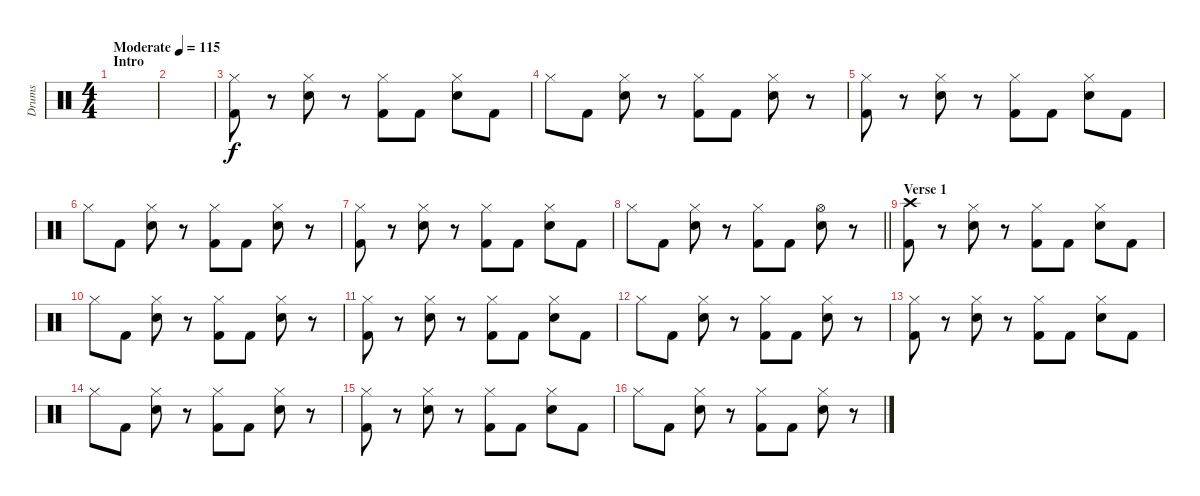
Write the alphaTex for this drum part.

\track ("Drums" "Drums") {instrument percussion}
\staff {score}
\articulation defaults
\ts (4 4)
\section ("" "Intro")
\tempo (115 "Moderate")
\clef neutral
\ks c
|
|
("Hi-Hat (closed)" "Kick (hit) 2").8 r.8 ("Hi-Hat (closed)" "Snare (hit) 2").8 r.8 ("Hi-Hat (closed)" "Kick (hit) 2").8 "Kick (hit) 2".8 ("Hi-Hat (closed)" "Snare (hit) 2").8 "Kick (hit) 2".8 |
"Hi-Hat (closed)".8 "Kick (hit) 2".8 ("Hi-Hat (closed)" "Snare (hit) 2").8 r.8 ("Hi-Hat (closed)" "Kick (hit) 2").8 "Kick (hit) 2".8 ("Hi-Hat (closed)" "Snare (hit) 2").8 r.8 |
("Hi-Hat (closed)" "Kick (hit) 2").8 r.8 ("Hi-Hat (closed)" "Snare (hit) 2").8 r.8 ("Hi-Hat (closed)" "Kick (hit) 2").8 "Kick (hit) 2".8 ("Hi-Hat (closed)" "Snare (hit) 2").8 "Kick (hit) 2".8 |
"Hi-Hat (closed)".8 "Kick (hit) 2".8 ("Hi-Hat (closed)" "Snare (hit) 2").8 r.8 ("Hi-Hat (closed)" "Kick (hit) 2").8 "Kick (hit) 2".8 ("Hi-Hat (closed)" "Snare (hit) 2").8 r.8 |
("Hi-Hat (closed)" "Kick (hit) 2").8 r.8 ("Hi-Hat (closed)" "Snare (hit) 2").8 r.8 ("Hi-Hat (closed)" "Kick (hit) 2").8 "Kick (hit) 2".8 ("Hi-Hat (closed)" "Snare (hit) 2").8 "Kick (hit) 2".8 |
\barLineRight lightlight "Hi-Hat (closed)".8 "Kick (hit) 2".8
("Hi-Hat (closed)" "Snare (hit) 2").8 r.8 ("Hi-Hat (closed)" "Kick (hit) 2").8 "Kick (hit) 2".8 ("Hi-Hat (open)" "Snare (hit) 2").8 r.8 |
\section ("" "Verse 1")
("Crash high (hit)" "Kick (hit) 2").8 r.8 ("Hi-Hat (closed)" "Snare (hit) 2").8 r.8 ("Hi-Hat (closed)" "Kick (hit) 2").8 "Kick (hit) 2".8 ("Hi-Hat (closed)" "Snare (hit) 2").8 "Kick (hit) 2".8 |
"Hi-Hat (closed)".8 "Kick (hit) 2".8 ("Hi-Hat (closed)" "Snare (hit) 2").8 r.8 ("Hi-Hat (closed)" "Kick (hit) 2").8 "Kick (hit) 2".8 ("Hi-Hat (closed)" "Snare (hit) 2").8 r.8 |
("Hi-Hat (closed)" "Kick (hit) 2").8 r.8 ("Hi-Hat (closed)" "Snare (hit) 2").8 r.8 ("Hi-Hat (closed)" "Kick (hit) 2").8 "Kick (hit) 2".8 ("Hi-Hat (closed)" "Snare (hit) 2").8 "Kick (hit) 2".8 |
"Hi-Hat (closed)".8 "Kick (hit) 2".8 ("Hi-Hat (closed)" "Snare (hit) 2").8 r.8 ("Hi-Hat (closed)" "Kick (hit) 2").8 "Kick (hit) 2".8 ("Hi-Hat (closed)" "Snare (hit) 2").8 r.8 |
("Hi-Hat (closed)" "Kick (hit) 2").8 r.8 ("Hi-Hat (closed)" "Snare (hit) 2").8 r.8 ("Hi-Hat (closed)" "Kick (hit) 2").8 "Kick (hit) 2".8 ("Hi-Hat (closed)" "Snare (hit) 2").8 "Kick (hit) 2".8 |
"Hi-Hat (closed)".8 "Kick (hit) 2".8 ("Hi-Hat (closed)" "Snare (hit) 2").8 r.8 ("Hi-Hat (closed)" "Kick (hit) 2").8 "Kick (hit) 2".8 ("Hi-Hat (closed)" "Snare (hit) 2").8 r.8 |
("Hi-Hat (closed)" "Kick (hit) 2").8 r.8 ("Hi-Hat (closed)" "Snare (hit) 2").8 r.8 ("Hi-Hat (closed)" "Kick (hit) 2").8 "Kick (hit) 2".8 ("Hi-Hat (closed)" "Snare (hit) 2").8 "Kick (hit) 2".8 |
"Hi-Hat (closed)".8 "Kick (hit) 2".8 ("Hi-Hat (closed)" "Snare (hit) 2").8 r.8 ("Hi-Hat (closed)" "Kick (hit) 2").8 "Kick (hit) 2".8 ("Hi-Hat (closed)" "Snare (hit) 2").8 r.8
